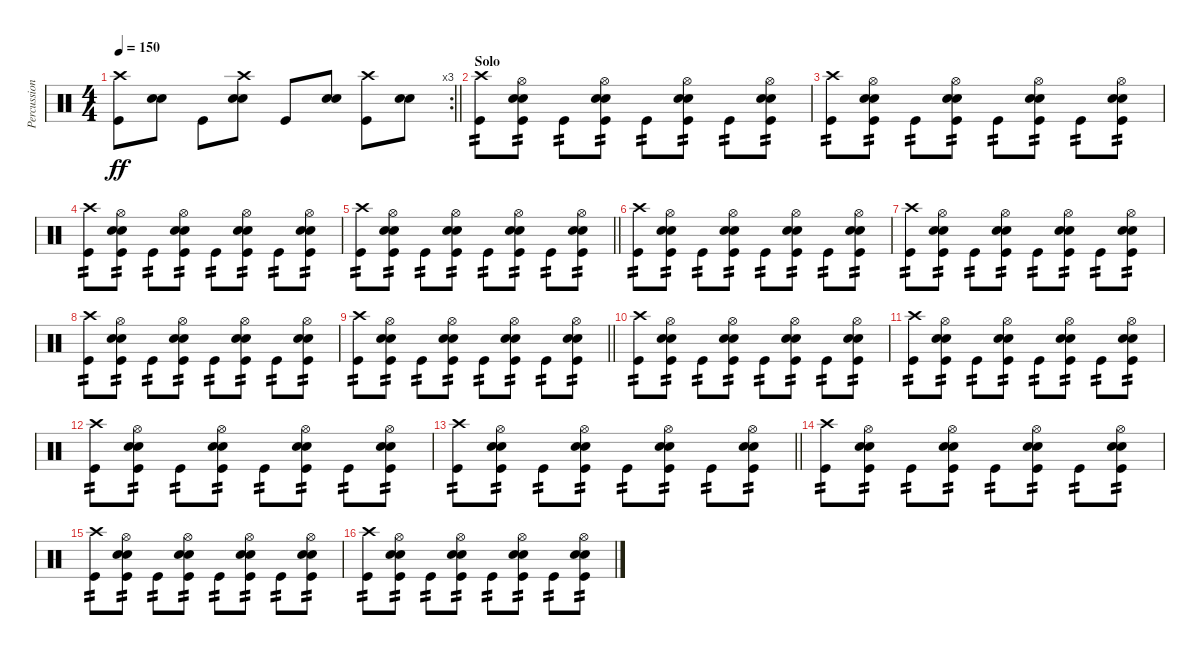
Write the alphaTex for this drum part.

\track ("Percussion" "Percussion") {instrument percussion}
\staff {score}
\articulation defaults
\rc 3
\ts (4 4)
\tempo 150
\clef neutral
\barLineRight lightlight
\ks c
("Crash high (hit)" "Kick (hit)").8{dy ff} ("Snare (hit) 2" "Electric Snare (hit)").8 "Kick (hit)".8 ("Crash high (hit)" "Snare (hit) 2" "Electric Snare (hit)").8 "Kick (hit)".8 ("Snare (hit) 2" "Electric Snare (hit)").8 ("Crash high (hit)" "Kick (hit)").8 ("Snare (hit) 2" "Electric Snare (hit)").8 |
\section ("" "Solo")
("Crash high (hit)" "Kick (hit)").8{tp 2} ("Hi-Hat (open)" "Snare (hit) 2" "Electric Snare (hit)" "Kick (hit)").8{tp 2} "Kick (hit)".8{tp 2} ("Hi-Hat (open)" "Snare (hit) 2" "Electric Snare (hit)" "Kick (hit)").8{tp 2} "Kick (hit)".8{tp 2} ("Hi-Hat (open)" "Snare (hit) 2" "Electric Snare (hit)" "Kick (hit)").8{tp 2} "Kick (hit)".8{tp 2} ("Hi-Hat (open)" "Snare (hit) 2" "Electric Snare (hit)" "Kick (hit)").8{tp 2} |
("Crash high (hit)" "Kick (hit)").8{tp 2} ("Hi-Hat (open)" "Snare (hit) 2" "Electric Snare (hit)" "Kick (hit)").8{tp 2} "Kick (hit)".8{tp 2} ("Hi-Hat (open)" "Snare (hit) 2" "Electric Snare (hit)" "Kick (hit)").8{tp 2} "Kick (hit)".8{tp 2} ("Hi-Hat (open)" "Snare (hit) 2" "Electric Snare (hit)" "Kick (hit)").8{tp 2} "Kick (hit)".8{tp 2} ("Hi-Hat (open)" "Snare (hit) 2" "Electric Snare (hit)" "Kick (hit)").8{tp 2} |
("Crash high (hit)" "Kick (hit)").8{tp 2} ("Hi-Hat (open)" "Snare (hit) 2" "Electric Snare (hit)" "Kick (hit)").8{tp 2} "Kick (hit)".8{tp 2} ("Hi-Hat (open)" "Snare (hit) 2" "Electric Snare (hit)" "Kick (hit)").8{tp 2} "Kick (hit)".8{tp 2} ("Hi-Hat (open)" "Snare (hit) 2" "Electric Snare (hit)" "Kick (hit)").8{tp 2} "Kick (hit)".8{tp 2} ("Hi-Hat (open)" "Snare (hit) 2" "Electric Snare (hit)" "Kick (hit)").8{tp 2} |
\barLineRight lightlight
("Crash high (hit)" "Kick (hit)").8{tp 2} ("Hi-Hat (open)" "Snare (hit) 2" "Electric Snare (hit)" "Kick (hit)").8{tp 2} "Kick (hit)".8{tp 2} ("Hi-Hat (open)" "Snare (hit) 2" "Electric Snare (hit)" "Kick (hit)").8{tp 2} "Kick (hit)".8{tp 2} ("Hi-Hat (open)" "Snare (hit) 2" "Electric Snare (hit)" "Kick (hit)").8{tp 2} "Kick (hit)".8{tp 2} ("Hi-Hat (open)" "Snare (hit) 2" "Electric Snare (hit)" "Kick (hit)").8{tp 2} |
("Crash high (hit)" "Kick (hit)").8{tp 2} ("Hi-Hat (open)" "Snare (hit) 2" "Electric Snare (hit)" "Kick (hit)").8{tp 2} "Kick (hit)".8{tp 2} ("Hi-Hat (open)" "Snare (hit) 2" "Electric Snare (hit)" "Kick (hit)").8{tp 2} "Kick (hit)".8{tp 2} ("Hi-Hat (open)" "Snare (hit) 2" "Electric Snare (hit)" "Kick (hit)").8{tp 2} "Kick (hit)".8{tp 2} ("Hi-Hat (open)" "Snare (hit) 2" "Electric Snare (hit)" "Kick (hit)").8{tp 2} |
("Crash high (hit)" "Kick (hit)").8{tp 2} ("Hi-Hat (open)" "Snare (hit) 2" "Electric Snare (hit)" "Kick (hit)").8{tp 2} "Kick (hit)".8{tp 2} ("Hi-Hat (open)" "Snare (hit) 2" "Electric Snare (hit)" "Kick (hit)").8{tp 2} "Kick (hit)".8{tp 2} ("Hi-Hat (open)" "Snare (hit) 2" "Electric Snare (hit)" "Kick (hit)").8{tp 2} "Kick (hit)".8{tp 2} ("Hi-Hat (open)" "Snare (hit) 2" "Electric Snare (hit)" "Kick (hit)").8{tp 2} |
("Crash high (hit)" "Kick (hit)").8{tp 2} ("Hi-Hat (open)" "Snare (hit) 2" "Electric Snare (hit)" "Kick (hit)").8{tp 2} "Kick (hit)".8{tp 2} ("Hi-Hat (open)" "Snare (hit) 2" "Electric Snare (hit)" "Kick (hit)").8{tp 2} "Kick (hit)".8{tp 2} ("Hi-Hat (open)" "Snare (hit) 2" "Electric Snare (hit)" "Kick (hit)").8{tp 2} "Kick (hit)".8{tp 2} ("Hi-Hat (open)" "Snare (hit) 2" "Electric Snare (hit)" "Kick (hit)").8{tp 2} |
\barLineRight lightlight
("Crash high (hit)" "Kick (hit)").8{tp 2} ("Hi-Hat (open)" "Snare (hit) 2" "Electric Snare (hit)" "Kick (hit)").8{tp 2} "Kick (hit)".8{tp 2} ("Hi-Hat (open)" "Snare (hit) 2" "Electric Snare (hit)" "Kick (hit)").8{tp 2} "Kick (hit)".8{tp 2} ("Hi-Hat (open)" "Snare (hit) 2" "Electric Snare (hit)" "Kick (hit)").8{tp 2} "Kick (hit)".8{tp 2} ("Hi-Hat (open)" "Snare (hit) 2" "Electric Snare (hit)" "Kick (hit)").8{tp 2} |
("Crash high (hit)" "Kick (hit)").8{tp 2} ("Hi-Hat (open)" "Snare (hit) 2" "Electric Snare (hit)" "Kick (hit)").8{tp 2} "Kick (hit)".8{tp 2} ("Hi-Hat (open)" "Snare (hit) 2" "Electric Snare (hit)" "Kick (hit)").8{tp 2} "Kick (hit)".8{tp 2} ("Hi-Hat (open)" "Snare (hit) 2" "Electric Snare (hit)" "Kick (hit)").8{tp 2} "Kick (hit)".8{tp 2} ("Hi-Hat (open)" "Snare (hit) 2" "Electric Snare (hit)" "Kick (hit)").8{tp 2} |
("Crash high (hit)" "Kick (hit)").8{tp 2} ("Hi-Hat (open)" "Snare (hit) 2" "Electric Snare (hit)" "Kick (hit)").8{tp 2} "Kick (hit)".8{tp 2} ("Hi-Hat (open)" "Snare (hit) 2" "Electric Snare (hit)" "Kick (hit)").8{tp 2} "Kick (hit)".8{tp 2} ("Hi-Hat (open)" "Snare (hit) 2" "Electric Snare (hit)" "Kick (hit)").8{tp 2} "Kick (hit)".8{tp 2} ("Hi-Hat (open)" "Snare (hit) 2" "Electric Snare (hit)" "Kick (hit)").8{tp 2} |
("Crash high (hit)" "Kick (hit)").8{tp 2} ("Hi-Hat (open)" "Snare (hit) 2" "Electric Snare (hit)" "Kick (hit)").8{tp 2} "Kick (hit)".8{tp 2} ("Hi-Hat (open)" "Snare (hit) 2" "Electric Snare (hit)" "Kick (hit)").8{tp 2} "Kick (hit)".8{tp 2} ("Hi-Hat (open)" "Snare (hit) 2" "Electric Snare (hit)" "Kick (hit)").8{tp 2} "Kick (hit)".8{tp 2} ("Hi-Hat (open)" "Snare (hit) 2" "Electric Snare (hit)" "Kick (hit)").8{tp 2} |
\barLineRight lightlight
("Crash high (hit)" "Kick (hit)").8{tp 2} ("Hi-Hat (open)" "Snare (hit) 2" "Electric Snare (hit)" "Kick (hit)").8{tp 2} "Kick (hit)".8{tp 2} ("Hi-Hat (open)" "Snare (hit) 2" "Electric Snare (hit)" "Kick (hit)").8{tp 2} "Kick (hit)".8{tp 2} ("Hi-Hat (open)" "Snare (hit) 2" "Electric Snare (hit)" "Kick (hit)").8{tp 2} "Kick (hit)".8{tp 2} ("Hi-Hat (open)" "Snare (hit) 2" "Electric Snare (hit)" "Kick (hit)").8{tp 2} |
("Crash high (hit)" "Kick (hit)").8{tp 2} ("Hi-Hat (open)" "Snare (hit) 2" "Electric Snare (hit)" "Kick (hit)").8{tp 2} "Kick (hit)".8{tp 2} ("Hi-Hat (open)" "Snare (hit) 2" "Electric Snare (hit)" "Kick (hit)").8{tp 2} "Kick (hit)".8{tp 2} ("Hi-Hat (open)" "Snare (hit) 2" "Electric Snare (hit)" "Kick (hit)").8{tp 2} "Kick (hit)".8{tp 2} ("Hi-Hat (open)" "Snare (hit) 2" "Electric Snare (hit)" "Kick (hit)").8{tp 2} |
("Crash high (hit)" "Kick (hit)").8{tp 2} ("Hi-Hat (open)" "Snare (hit) 2" "Electric Snare (hit)" "Kick (hit)").8{tp 2} "Kick (hit)".8{tp 2} ("Hi-Hat (open)" "Snare (hit) 2" "Electric Snare (hit)" "Kick (hit)").8{tp 2} "Kick (hit)".8{tp 2} ("Hi-Hat (open)" "Snare (hit) 2" "Electric Snare (hit)" "Kick (hit)").8{tp 2} "Kick (hit)".8{tp 2} ("Hi-Hat (open)" "Snare (hit) 2" "Electric Snare (hit)" "Kick (hit)").8{tp 2} |
("Crash high (hit)" "Kick (hit)").8{tp 2} ("Hi-Hat (open)" "Snare (hit) 2" "Electric Snare (hit)" "Kick (hit)").8{tp 2} "Kick (hit)".8{tp 2} ("Hi-Hat (open)" "Snare (hit) 2" "Electric Snare (hit)" "Kick (hit)").8{tp 2} "Kick (hit)".8{tp 2} ("Hi-Hat (open)" "Snare (hit) 2" "Electric Snare (hit)" "Kick (hit)").8{tp 2} "Kick (hit)".8{tp 2} ("Hi-Hat (open)" "Snare (hit) 2" "Electric Snare (hit)" "Kick (hit)").8{tp 2}
